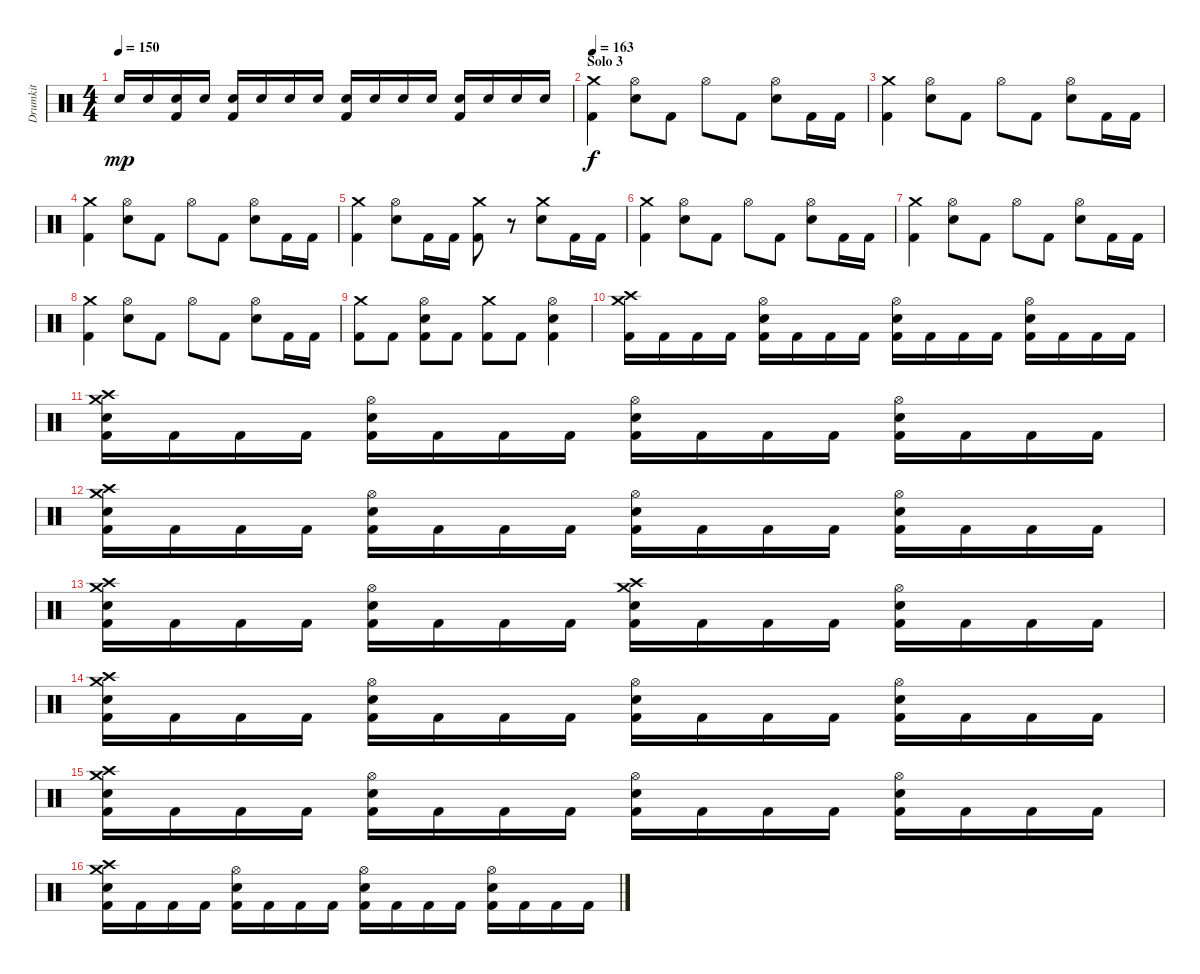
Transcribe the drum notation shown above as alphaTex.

\track ("Drumkit" "Drumkit") {instrument percussion}
\staff {score}
\articulation defaults
\ts (4 4)
\tempo 150
\clef neutral
\ks c "Snare (hit) 2".16{dy mp} "Snare (hit) 2".16
("Snare (hit) 2" "Kick (hit) 2").16 "Snare (hit) 2".16 ("Snare (hit) 2" "Kick (hit) 2").16 "Snare (hit) 2".16 "Snare (hit) 2".16 "Snare (hit) 2".16 ("Snare (hit) 2" "Kick (hit) 2").16 "Snare (hit) 2".16 "Snare (hit) 2".16 "Snare (hit) 2".16 ("Snare (hit) 2" "Kick (hit) 2").16 "Snare (hit) 2".16 "Snare (hit) 2".16 "Snare (hit) 2".16 |
\section ("" "Solo 3")
\tempo 163
("Crash medium (hit)" "Kick (hit) 2").4{dy f} ("Hi-Hat (open)" "Snare (hit) 2").8 "Kick (hit) 2".8 "Hi-Hat (open)".8 "Kick (hit) 2".8 ("Hi-Hat (open)" "Snare (hit) 2").8 "Kick (hit) 2".16 "Kick (hit) 2".16 |
("Crash medium (hit)" "Kick (hit) 2").4 ("Hi-Hat (open)" "Snare (hit) 2").8 "Kick (hit) 2".8 "Hi-Hat (open)".8 "Kick (hit) 2".8 ("Hi-Hat (open)" "Snare (hit) 2").8 "Kick (hit) 2".16 "Kick (hit) 2".16 |
("Crash medium (hit)" "Kick (hit) 2").4 ("Hi-Hat (open)" "Snare (hit) 2").8 "Kick (hit) 2".8 "Hi-Hat (open)".8 "Kick (hit) 2".8 ("Hi-Hat (open)" "Snare (hit) 2").8 "Kick (hit) 2".16 "Kick (hit) 2".16 |
("Crash medium (hit)" "Kick (hit) 2").4 ("Hi-Hat (open)" "Snare (hit) 2").8 "Kick (hit) 2".16 "Kick (hit) 2".16 ("Crash medium (hit)" "Kick (hit) 2").8 r.8 ("Crash medium (hit)" "Snare (hit) 2").8 "Kick (hit) 2".16 "Kick (hit) 2".16 |
("Crash medium (hit)" "Kick (hit) 2").4 ("Hi-Hat (open)" "Snare (hit) 2").8 "Kick (hit) 2".8 "Hi-Hat (open)".8 "Kick (hit) 2".8 ("Hi-Hat (open)" "Snare (hit) 2").8 "Kick (hit) 2".16 "Kick (hit) 2".16 |
("Crash medium (hit)" "Kick (hit) 2").4 ("Hi-Hat (open)" "Snare (hit) 2").8 "Kick (hit) 2".8 "Hi-Hat (open)".8 "Kick (hit) 2".8 ("Hi-Hat (open)" "Snare (hit) 2").8 "Kick (hit) 2".16 "Kick (hit) 2".16 |
("Crash medium (hit)" "Kick (hit) 2").4 ("Hi-Hat (open)" "Snare (hit) 2").8 "Kick (hit) 2".8 "Hi-Hat (open)".8 "Kick (hit) 2".8 ("Hi-Hat (open)" "Snare (hit) 2").8 "Kick (hit) 2".16 "Kick (hit) 2".16 |
("Crash medium (hit)" "Kick (hit) 2").8 "Kick (hit) 2".8 ("Hi-Hat (open)" "Snare (hit) 2" "Kick (hit) 2").8 "Kick (hit) 2".8 ("Crash medium (hit)" "Kick (hit) 2").8 "Kick (hit) 2".8 ("Hi-Hat (open)" "Snare (hit) 2" "Kick (hit) 2").4 |
("Crash medium (hit)" "Crash high (hit)" "Kick (hit) 2").16 "Kick (hit) 2".16 "Kick (hit) 2".16 "Kick (hit) 2".16 ("Hi-Hat (open)" "Snare (hit) 2" "Kick (hit) 2").16 "Kick (hit) 2".16 "Kick (hit) 2".16 "Kick (hit) 2".16 ("Hi-Hat (open)" "Snare (hit) 2" "Kick (hit) 2").16 "Kick (hit) 2".16 "Kick (hit) 2".16 "Kick (hit) 2".16 ("Hi-Hat (open)" "Snare (hit) 2" "Kick (hit) 2").16 "Kick (hit) 2".16 "Kick (hit) 2".16 "Kick (hit) 2".16 |
("Crash medium (hit)" "Crash high (hit)" "Snare (hit) 2" "Kick (hit) 2").16 "Kick (hit) 2".16 "Kick (hit) 2".16 "Kick (hit) 2".16 ("Hi-Hat (open)" "Snare (hit) 2" "Kick (hit) 2").16 "Kick (hit) 2".16 "Kick (hit) 2".16 "Kick (hit) 2".16 ("Hi-Hat (open)" "Snare (hit) 2" "Kick (hit) 2").16 "Kick (hit) 2".16 "Kick (hit) 2".16 "Kick (hit) 2".16 ("Hi-Hat (open)" "Snare (hit) 2" "Kick (hit) 2").16 "Kick (hit) 2".16 "Kick (hit) 2".16 "Kick (hit) 2".16 |
("Crash medium (hit)" "Crash high (hit)" "Snare (hit) 2" "Kick (hit) 2").16 "Kick (hit) 2".16 "Kick (hit) 2".16 "Kick (hit) 2".16 ("Hi-Hat (open)" "Snare (hit) 2" "Kick (hit) 2").16 "Kick (hit) 2".16 "Kick (hit) 2".16 "Kick (hit) 2".16 ("Hi-Hat (open)" "Snare (hit) 2" "Kick (hit) 2").16 "Kick (hit) 2".16 "Kick (hit) 2".16 "Kick (hit) 2".16 ("Hi-Hat (open)" "Snare (hit) 2" "Kick (hit) 2").16 "Kick (hit) 2".16 "Kick (hit) 2".16 "Kick (hit) 2".16 |
("Crash medium (hit)" "Crash high (hit)" "Snare (hit) 2" "Kick (hit) 2").16 "Kick (hit) 2".16 "Kick (hit) 2".16 "Kick (hit) 2".16 ("Hi-Hat (open)" "Snare (hit) 2" "Kick (hit) 2").16 "Kick (hit) 2".16 "Kick (hit) 2".16 "Kick (hit) 2".16 ("Crash medium (hit)" "Crash high (hit)" "Snare (hit) 2" "Kick (hit) 2").16 "Kick (hit) 2".16 "Kick (hit) 2".16 "Kick (hit) 2".16 ("Hi-Hat (open)" "Snare (hit) 2" "Kick (hit) 2").16 "Kick (hit) 2".16 "Kick (hit) 2".16 "Kick (hit) 2".16 |
("Crash medium (hit)" "Crash high (hit)" "Snare (hit) 2" "Kick (hit) 2").16 "Kick (hit) 2".16 "Kick (hit) 2".16 "Kick (hit) 2".16 ("Hi-Hat (open)" "Snare (hit) 2" "Kick (hit) 2").16 "Kick (hit) 2".16 "Kick (hit) 2".16 "Kick (hit) 2".16 ("Hi-Hat (open)" "Snare (hit) 2" "Kick (hit) 2").16 "Kick (hit) 2".16 "Kick (hit) 2".16 "Kick (hit) 2".16 ("Hi-Hat (open)" "Snare (hit) 2" "Kick (hit) 2").16 "Kick (hit) 2".16 "Kick (hit) 2".16 "Kick (hit) 2".16 |
("Crash medium (hit)" "Crash high (hit)" "Snare (hit) 2" "Kick (hit) 2").16 "Kick (hit) 2".16 "Kick (hit) 2".16 "Kick (hit) 2".16 ("Hi-Hat (open)" "Snare (hit) 2" "Kick (hit) 2").16 "Kick (hit) 2".16 "Kick (hit) 2".16 "Kick (hit) 2".16 ("Hi-Hat (open)" "Snare (hit) 2" "Kick (hit) 2").16 "Kick (hit) 2".16 "Kick (hit) 2".16 "Kick (hit) 2".16 ("Hi-Hat (open)" "Snare (hit) 2" "Kick (hit) 2").16 "Kick (hit) 2".16 "Kick (hit) 2".16 "Kick (hit) 2".16 |
("Crash medium (hit)" "Crash high (hit)" "Snare (hit) 2" "Kick (hit) 2").16 "Kick (hit) 2".16 "Kick (hit) 2".16 "Kick (hit) 2".16 ("Hi-Hat (open)" "Snare (hit) 2" "Kick (hit) 2").16 "Kick (hit) 2".16 "Kick (hit) 2".16 "Kick (hit) 2".16 ("Hi-Hat (open)" "Snare (hit) 2" "Kick (hit) 2").16 "Kick (hit) 2".16 "Kick (hit) 2".16 "Kick (hit) 2".16 ("Hi-Hat (open)" "Snare (hit) 2" "Kick (hit) 2").16 "Kick (hit) 2".16 "Kick (hit) 2".16 "Kick (hit) 2".16
